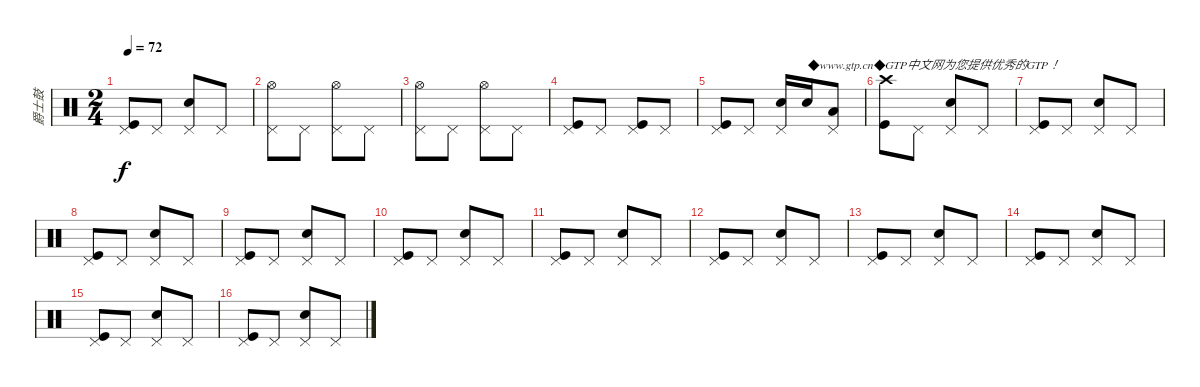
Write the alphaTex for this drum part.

\track ("爵士鼓" "爵士鼓") {instrument percussion}
\staff {score}
\articulation defaults
\ts (2 4)
\tempo 72
\clef neutral
\ks c
("Pedal Hi-Hat (hit)" "Kick (hit)").8{dy f} "Pedal Hi-Hat (hit)".8 ("Pedal Hi-Hat (hit)" "Electric Snare (hit)").8 "Pedal Hi-Hat (hit)".8 |
("Pedal Hi-Hat (hit)" "Hi-Hat (open)").8 "Pedal Hi-Hat (hit)".8 ("Pedal Hi-Hat (hit)" "Hi-Hat (open)").8 "Pedal Hi-Hat (hit)".8 |
("Pedal Hi-Hat (hit)" "Hi-Hat (open)").8 "Pedal Hi-Hat (hit)".8 ("Pedal Hi-Hat (hit)" "Hi-Hat (open)").8 "Pedal Hi-Hat (hit)".8 |
("Pedal Hi-Hat (hit)" "Kick (hit)").8 "Pedal Hi-Hat (hit)".8 ("Pedal Hi-Hat (hit)" "Kick (hit)").8 "Pedal Hi-Hat (hit)".8 |
("Pedal Hi-Hat (hit)" "Kick (hit)").8 "Pedal Hi-Hat (hit)".8 ("Pedal Hi-Hat (hit)" "Electric Snare (hit)").16 "Electric Snare (hit)".16{txt "◆www.gtp.cn◆GTP中文网为您提供优秀的GTP！"} ("Pedal Hi-Hat (hit)" "Low Floor Tom (hit)").8 |
("Crash high (hit)" "Kick (hit)").8 "Pedal Hi-Hat (hit)".8 ("Pedal Hi-Hat (hit)" "Electric Snare (hit)").8 "Pedal Hi-Hat (hit)".8 |
("Pedal Hi-Hat (hit)" "Kick (hit)").8 "Pedal Hi-Hat (hit)".8 ("Pedal Hi-Hat (hit)" "Electric Snare (hit)").8 "Pedal Hi-Hat (hit)".8 |
("Pedal Hi-Hat (hit)" "Kick (hit)").8 "Pedal Hi-Hat (hit)".8 ("Pedal Hi-Hat (hit)" "Electric Snare (hit)").8 "Pedal Hi-Hat (hit)".8 |
("Pedal Hi-Hat (hit)" "Kick (hit)").8 "Pedal Hi-Hat (hit)".8 ("Pedal Hi-Hat (hit)" "Electric Snare (hit)").8 "Pedal Hi-Hat (hit)".8 |
("Pedal Hi-Hat (hit)" "Kick (hit)").8 "Pedal Hi-Hat (hit)".8 ("Pedal Hi-Hat (hit)" "Electric Snare (hit)").8 "Pedal Hi-Hat (hit)".8 |
("Pedal Hi-Hat (hit)" "Kick (hit)").8 "Pedal Hi-Hat (hit)".8 ("Pedal Hi-Hat (hit)" "Electric Snare (hit)").8 "Pedal Hi-Hat (hit)".8 |
("Pedal Hi-Hat (hit)" "Kick (hit)").8 "Pedal Hi-Hat (hit)".8 ("Pedal Hi-Hat (hit)" "Electric Snare (hit)").8 "Pedal Hi-Hat (hit)".8 |
("Pedal Hi-Hat (hit)" "Kick (hit)").8 "Pedal Hi-Hat (hit)".8 ("Pedal Hi-Hat (hit)" "Electric Snare (hit)").8 "Pedal Hi-Hat (hit)".8 |
("Pedal Hi-Hat (hit)" "Kick (hit)").8 "Pedal Hi-Hat (hit)".8 ("Pedal Hi-Hat (hit)" "Electric Snare (hit)").8 "Pedal Hi-Hat (hit)".8 |
("Pedal Hi-Hat (hit)" "Kick (hit)").8 "Pedal Hi-Hat (hit)".8 ("Pedal Hi-Hat (hit)" "Electric Snare (hit)").8 "Pedal Hi-Hat (hit)".8 |
("Pedal Hi-Hat (hit)" "Kick (hit)").8 "Pedal Hi-Hat (hit)".8 ("Pedal Hi-Hat (hit)" "Electric Snare (hit)").8 "Pedal Hi-Hat (hit)".8
